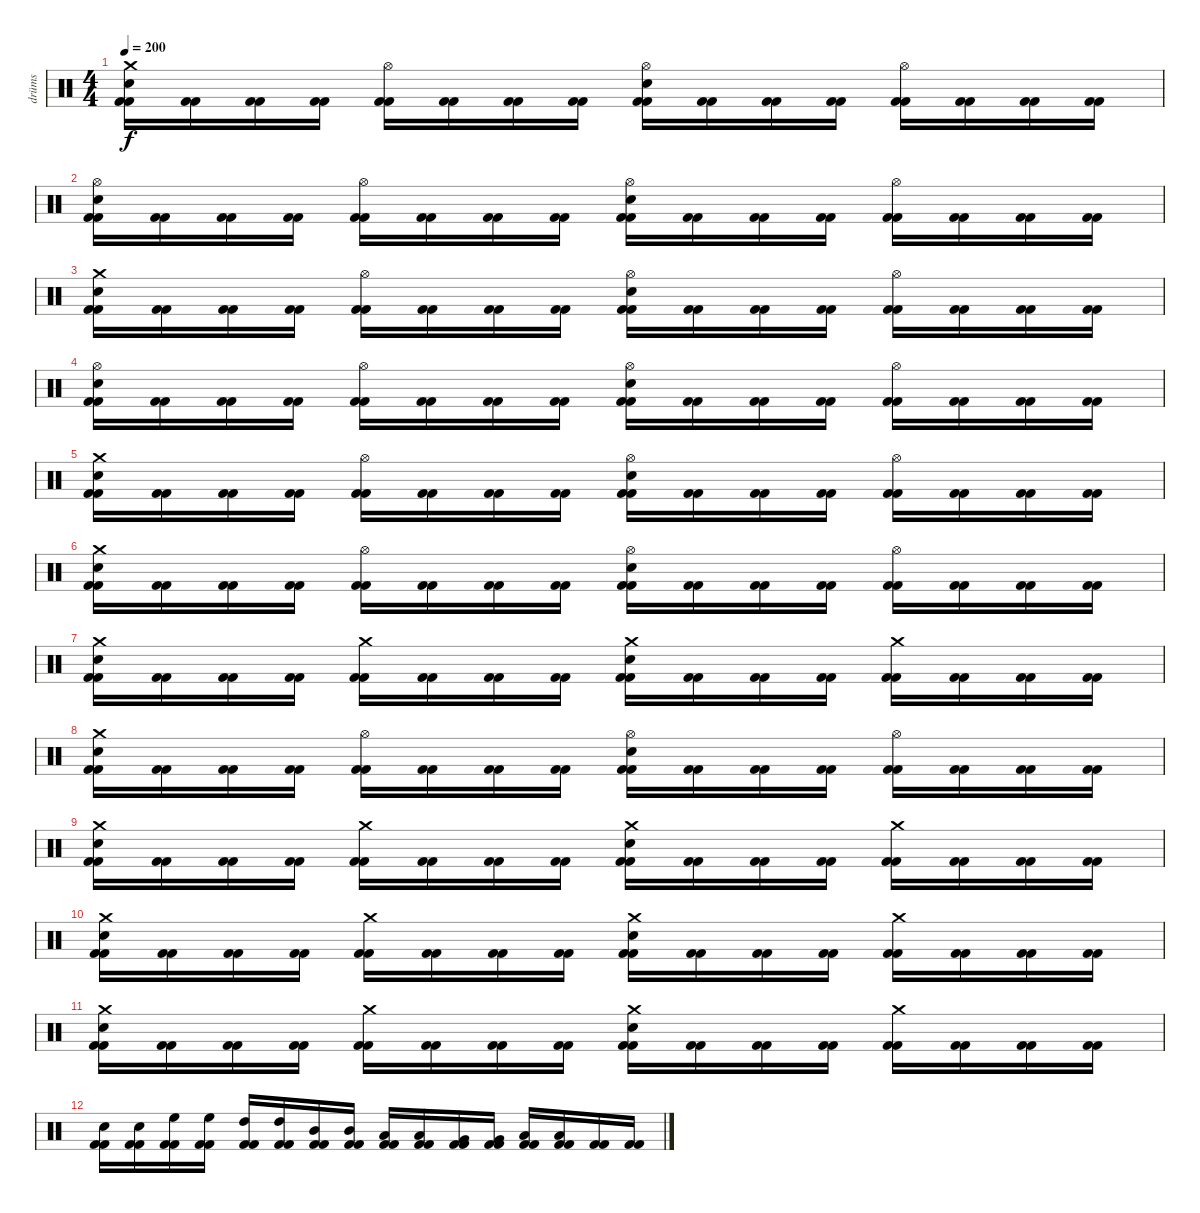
\track ("drüms" "drüms") {instrument percussion}
\staff {score}
\articulation defaults
\ts (4 4)
\tempo 200
\clef neutral
\ks c
("Crash medium (hit)" "Snare (hit) 2" "Kick (hit) 2" "Kick (hit) 2").16{dy f} ("Kick (hit) 2" "Kick (hit) 2").16 ("Kick (hit) 2" "Kick (hit) 2").16 ("Kick (hit) 2" "Kick (hit) 2").16 ("Hi-Hat (open)" "Kick (hit) 2" "Kick (hit) 2").16 ("Kick (hit) 2" "Kick (hit) 2").16 ("Kick (hit) 2" "Kick (hit) 2").16 ("Kick (hit) 2" "Kick (hit) 2").16 ("Hi-Hat (open)" "Snare (hit) 2" "Kick (hit) 2" "Kick (hit) 2").16 ("Kick (hit) 2" "Kick (hit) 2").16 ("Kick (hit) 2" "Kick (hit) 2").16 ("Kick (hit) 2" "Kick (hit) 2").16 ("Hi-Hat (open)" "Kick (hit) 2" "Kick (hit) 2").16 ("Kick (hit) 2" "Kick (hit) 2").16 ("Kick (hit) 2" "Kick (hit) 2").16 ("Kick (hit) 2" "Kick (hit) 2").16 |
("Hi-Hat (open)" "Snare (hit) 2" "Kick (hit) 2" "Kick (hit) 2").16 ("Kick (hit) 2" "Kick (hit) 2").16 ("Kick (hit) 2" "Kick (hit) 2").16 ("Kick (hit) 2" "Kick (hit) 2").16 ("Hi-Hat (open)" "Kick (hit) 2" "Kick (hit) 2").16 ("Kick (hit) 2" "Kick (hit) 2").16 ("Kick (hit) 2" "Kick (hit) 2").16 ("Kick (hit) 2" "Kick (hit) 2").16 ("Hi-Hat (open)" "Snare (hit) 2" "Kick (hit) 2" "Kick (hit) 2").16 ("Kick (hit) 2" "Kick (hit) 2").16 ("Kick (hit) 2" "Kick (hit) 2").16 ("Kick (hit) 2" "Kick (hit) 2").16 ("Hi-Hat (open)" "Kick (hit) 2" "Kick (hit) 2").16 ("Kick (hit) 2" "Kick (hit) 2").16 ("Kick (hit) 2" "Kick (hit) 2").16 ("Kick (hit) 2" "Kick (hit) 2").16 |
("Crash medium (hit)" "Snare (hit) 2" "Kick (hit) 2" "Kick (hit) 2").16 ("Kick (hit) 2" "Kick (hit) 2").16 ("Kick (hit) 2" "Kick (hit) 2").16 ("Kick (hit) 2" "Kick (hit) 2").16 ("Hi-Hat (open)" "Kick (hit) 2" "Kick (hit) 2").16 ("Kick (hit) 2" "Kick (hit) 2").16 ("Kick (hit) 2" "Kick (hit) 2").16 ("Kick (hit) 2" "Kick (hit) 2").16 ("Hi-Hat (open)" "Snare (hit) 2" "Kick (hit) 2" "Kick (hit) 2").16 ("Kick (hit) 2" "Kick (hit) 2").16 ("Kick (hit) 2" "Kick (hit) 2").16 ("Kick (hit) 2" "Kick (hit) 2").16 ("Hi-Hat (open)" "Kick (hit) 2" "Kick (hit) 2").16 ("Kick (hit) 2" "Kick (hit) 2").16 ("Kick (hit) 2" "Kick (hit) 2").16 ("Kick (hit) 2" "Kick (hit) 2").16 |
("Hi-Hat (open)" "Snare (hit) 2" "Kick (hit) 2" "Kick (hit) 2").16 ("Kick (hit) 2" "Kick (hit) 2").16 ("Kick (hit) 2" "Kick (hit) 2").16 ("Kick (hit) 2" "Kick (hit) 2").16 ("Hi-Hat (open)" "Kick (hit) 2" "Kick (hit) 2").16 ("Kick (hit) 2" "Kick (hit) 2").16 ("Kick (hit) 2" "Kick (hit) 2").16 ("Kick (hit) 2" "Kick (hit) 2").16 ("Hi-Hat (open)" "Snare (hit) 2" "Kick (hit) 2" "Kick (hit) 2").16 ("Kick (hit) 2" "Kick (hit) 2").16 ("Kick (hit) 2" "Kick (hit) 2").16 ("Kick (hit) 2" "Kick (hit) 2").16 ("Hi-Hat (open)" "Kick (hit) 2" "Kick (hit) 2").16 ("Kick (hit) 2" "Kick (hit) 2").16 ("Kick (hit) 2" "Kick (hit) 2").16 ("Kick (hit) 2" "Kick (hit) 2").16 |
("Crash medium (hit)" "Snare (hit) 2" "Kick (hit) 2" "Kick (hit) 2").16 ("Kick (hit) 2" "Kick (hit) 2").16 ("Kick (hit) 2" "Kick (hit) 2").16 ("Kick (hit) 2" "Kick (hit) 2").16 ("Hi-Hat (open)" "Kick (hit) 2" "Kick (hit) 2").16 ("Kick (hit) 2" "Kick (hit) 2").16 ("Kick (hit) 2" "Kick (hit) 2").16 ("Kick (hit) 2" "Kick (hit) 2").16 ("Hi-Hat (open)" "Snare (hit) 2" "Kick (hit) 2" "Kick (hit) 2").16 ("Kick (hit) 2" "Kick (hit) 2").16 ("Kick (hit) 2" "Kick (hit) 2").16 ("Kick (hit) 2" "Kick (hit) 2").16 ("Hi-Hat (open)" "Kick (hit) 2" "Kick (hit) 2").16 ("Kick (hit) 2" "Kick (hit) 2").16 ("Kick (hit) 2" "Kick (hit) 2").16 ("Kick (hit) 2" "Kick (hit) 2").16 |
("Crash medium (hit)" "Snare (hit) 2" "Kick (hit) 2" "Kick (hit) 2").16 ("Kick (hit) 2" "Kick (hit) 2").16 ("Kick (hit) 2" "Kick (hit) 2").16 ("Kick (hit) 2" "Kick (hit) 2").16 ("Hi-Hat (open)" "Kick (hit) 2" "Kick (hit) 2").16 ("Kick (hit) 2" "Kick (hit) 2").16 ("Kick (hit) 2" "Kick (hit) 2").16 ("Kick (hit) 2" "Kick (hit) 2").16 ("Hi-Hat (open)" "Snare (hit) 2" "Kick (hit) 2" "Kick (hit) 2").16 ("Kick (hit) 2" "Kick (hit) 2").16 ("Kick (hit) 2" "Kick (hit) 2").16 ("Kick (hit) 2" "Kick (hit) 2").16 ("Hi-Hat (open)" "Kick (hit) 2" "Kick (hit) 2").16 ("Kick (hit) 2" "Kick (hit) 2").16 ("Kick (hit) 2" "Kick (hit) 2").16 ("Kick (hit) 2" "Kick (hit) 2").16 |
("Crash medium (hit)" "Snare (hit) 2" "Kick (hit) 2" "Kick (hit) 2").16 ("Kick (hit) 2" "Kick (hit) 2").16 ("Kick (hit) 2" "Kick (hit) 2").16 ("Kick (hit) 2" "Kick (hit) 2").16 ("Crash medium (hit)" "Kick (hit) 2" "Kick (hit) 2").16 ("Kick (hit) 2" "Kick (hit) 2").16 ("Kick (hit) 2" "Kick (hit) 2").16 ("Kick (hit) 2" "Kick (hit) 2").16 ("Crash medium (hit)" "Snare (hit) 2" "Kick (hit) 2" "Kick (hit) 2").16 ("Kick (hit) 2" "Kick (hit) 2").16 ("Kick (hit) 2" "Kick (hit) 2").16 ("Kick (hit) 2" "Kick (hit) 2").16 ("Crash medium (hit)" "Kick (hit) 2" "Kick (hit) 2").16 ("Kick (hit) 2" "Kick (hit) 2").16 ("Kick (hit) 2" "Kick (hit) 2").16 ("Kick (hit) 2" "Kick (hit) 2").16 |
("Crash medium (hit)" "Snare (hit) 2" "Kick (hit) 2" "Kick (hit) 2").16 ("Kick (hit) 2" "Kick (hit) 2").16 ("Kick (hit) 2" "Kick (hit) 2").16 ("Kick (hit) 2" "Kick (hit) 2").16 ("Hi-Hat (open)" "Kick (hit) 2" "Kick (hit) 2").16 ("Kick (hit) 2" "Kick (hit) 2").16 ("Kick (hit) 2" "Kick (hit) 2").16 ("Kick (hit) 2" "Kick (hit) 2").16 ("Hi-Hat (open)" "Snare (hit) 2" "Kick (hit) 2" "Kick (hit) 2").16 ("Kick (hit) 2" "Kick (hit) 2").16 ("Kick (hit) 2" "Kick (hit) 2").16 ("Kick (hit) 2" "Kick (hit) 2").16 ("Hi-Hat (open)" "Kick (hit) 2" "Kick (hit) 2").16 ("Kick (hit) 2" "Kick (hit) 2").16 ("Kick (hit) 2" "Kick (hit) 2").16 ("Kick (hit) 2" "Kick (hit) 2").16 |
("Crash medium (hit)" "Snare (hit) 2" "Kick (hit) 2" "Kick (hit) 2").16 ("Kick (hit) 2" "Kick (hit) 2").16 ("Kick (hit) 2" "Kick (hit) 2").16 ("Kick (hit) 2" "Kick (hit) 2").16 ("Crash medium (hit)" "Kick (hit) 2" "Kick (hit) 2").16 ("Kick (hit) 2" "Kick (hit) 2").16 ("Kick (hit) 2" "Kick (hit) 2").16 ("Kick (hit) 2" "Kick (hit) 2").16 ("Crash medium (hit)" "Snare (hit) 2" "Kick (hit) 2" "Kick (hit) 2").16 ("Kick (hit) 2" "Kick (hit) 2").16 ("Kick (hit) 2" "Kick (hit) 2").16 ("Kick (hit) 2" "Kick (hit) 2").16 ("Crash medium (hit)" "Kick (hit) 2" "Kick (hit) 2").16 ("Kick (hit) 2" "Kick (hit) 2").16 ("Kick (hit) 2" "Kick (hit) 2").16 ("Kick (hit) 2" "Kick (hit) 2").16 |
("Crash medium (hit)" "Snare (hit) 2" "Kick (hit) 2" "Kick (hit) 2").16 ("Kick (hit) 2" "Kick (hit) 2").16 ("Kick (hit) 2" "Kick (hit) 2").16 ("Kick (hit) 2" "Kick (hit) 2").16 ("Crash medium (hit)" "Kick (hit) 2" "Kick (hit) 2").16 ("Kick (hit) 2" "Kick (hit) 2").16 ("Kick (hit) 2" "Kick (hit) 2").16 ("Kick (hit) 2" "Kick (hit) 2").16 ("Crash medium (hit)" "Snare (hit) 2" "Kick (hit) 2" "Kick (hit) 2").16 ("Kick (hit) 2" "Kick (hit) 2").16 ("Kick (hit) 2" "Kick (hit) 2").16 ("Kick (hit) 2" "Kick (hit) 2").16 ("Crash medium (hit)" "Kick (hit) 2" "Kick (hit) 2").16 ("Kick (hit) 2" "Kick (hit) 2").16 ("Kick (hit) 2" "Kick (hit) 2").16 ("Kick (hit) 2" "Kick (hit) 2").16 |
("Crash medium (hit)" "Snare (hit) 2" "Kick (hit) 2" "Kick (hit) 2").16 ("Kick (hit) 2" "Kick (hit) 2").16 ("Kick (hit) 2" "Kick (hit) 2").16 ("Kick (hit) 2" "Kick (hit) 2").16 ("Crash medium (hit)" "Kick (hit) 2" "Kick (hit) 2").16 ("Kick (hit) 2" "Kick (hit) 2").16 ("Kick (hit) 2" "Kick (hit) 2").16 ("Kick (hit) 2" "Kick (hit) 2").16 ("Crash medium (hit)" "Snare (hit) 2" "Kick (hit) 2" "Kick (hit) 2").16 ("Kick (hit) 2" "Kick (hit) 2").16 ("Kick (hit) 2" "Kick (hit) 2").16 ("Kick (hit) 2" "Kick (hit) 2").16 ("Crash medium (hit)" "Kick (hit) 2" "Kick (hit) 2").16 ("Kick (hit) 2" "Kick (hit) 2").16 ("Kick (hit) 2" "Kick (hit) 2").16 ("Kick (hit) 2" "Kick (hit) 2").16 |
("Snare (hit) 2" "Kick (hit) 2" "Kick (hit) 2").16 ("Snare (hit) 2" "Kick (hit) 2" "Kick (hit) 2").16 ("High Floor Tom (hit)" "Kick (hit) 2" "Kick (hit) 2").16 ("High Floor Tom (hit)" "Kick (hit) 2" "Kick (hit) 2").16 ("High Tom (hit)" "Kick (hit) 2" "Kick (hit) 2").16 ("High Tom (hit)" "Kick (hit) 2" "Kick (hit) 2").16 ("Mid Tom (hit)" "Kick (hit) 2" "Kick (hit) 2").16 ("Mid Tom (hit)" "Kick (hit) 2" "Kick (hit) 2").16 ("Low Tom (hit)" "Kick (hit) 2" "Kick (hit) 2").16 ("Low Tom (hit)" "Kick (hit) 2" "Kick (hit) 2").16 ("Very Low Tom (hit)" "Kick (hit) 2" "Kick (hit) 2").16 ("Very Low Tom (hit)" "Kick (hit) 2" "Kick (hit) 2").16 ("Low Floor Tom (hit)" "Kick (hit) 2" "Kick (hit) 2").16 ("Low Floor Tom (hit)" "Kick (hit) 2" "Kick (hit) 2").16 ("Kick (hit) 2" "Kick (hit) 2").16 ("Kick (hit) 2" "Kick (hit) 2").16
